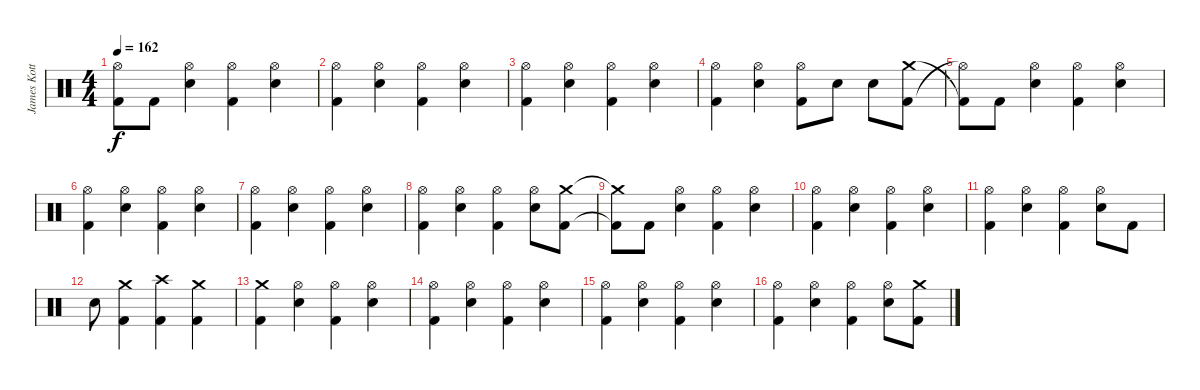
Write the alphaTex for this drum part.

\track ("James Kottak" "James Kott") {instrument percussion}
\staff {score}
\articulation defaults
\ts (4 4)
\tempo 162
\clef neutral
\ks c
("Hi-Hat (open)"{t} "Kick (hit) 2"{t}).8{dy f} "Kick (hit) 2".8 ("Hi-Hat (open)" "Snare (hit) 2").4 ("Hi-Hat (open)" "Kick (hit) 2").4 ("Hi-Hat (open)" "Snare (hit) 2").4 |
("Hi-Hat (open)" "Kick (hit) 2").4 ("Hi-Hat (open)" "Snare (hit) 2").4 ("Hi-Hat (open)" "Kick (hit) 2").4 ("Hi-Hat (open)" "Snare (hit) 2").4 |
("Hi-Hat (open)" "Kick (hit) 2").4 ("Hi-Hat (open)" "Snare (hit) 2").4 ("Hi-Hat (open)" "Kick (hit) 2").4 ("Hi-Hat (open)" "Snare (hit) 2").4 |
("Hi-Hat (open)" "Kick (hit) 2").4 ("Hi-Hat (open)" "Snare (hit) 2").4 ("Hi-Hat (open)" "Kick (hit) 2").8 "Snare (hit) 2".8 "Snare (hit) 2".8 ("Kick (hit) 2" "Crash medium (hit)").8 |
("Hi-Hat (open)"{t} "Kick (hit) 2"{t}).8 "Kick (hit) 2".8 ("Hi-Hat (open)" "Snare (hit) 2").4 ("Hi-Hat (open)" "Kick (hit) 2").4 ("Hi-Hat (open)" "Snare (hit) 2").4 |
("Hi-Hat (open)" "Kick (hit) 2").4 ("Hi-Hat (open)" "Snare (hit) 2").4 ("Hi-Hat (open)" "Kick (hit) 2").4 ("Hi-Hat (open)" "Snare (hit) 2").4 |
("Hi-Hat (open)" "Kick (hit) 2").4 ("Hi-Hat (open)" "Snare (hit) 2").4 ("Hi-Hat (open)" "Kick (hit) 2").4 ("Hi-Hat (open)" "Snare (hit) 2").4 |
("Hi-Hat (open)" "Kick (hit) 2").4 ("Hi-Hat (open)" "Snare (hit) 2").4 ("Hi-Hat (open)" "Kick (hit) 2").4 ("Hi-Hat (open)" "Snare (hit) 2").8 ("Crash medium (hit)" "Kick (hit) 2").8 |
("Crash medium (hit)"{t} "Kick (hit) 2"{t}).8 "Kick (hit) 2".8 ("Hi-Hat (open)" "Snare (hit) 2").4 ("Hi-Hat (open)" "Kick (hit) 2").4 ("Hi-Hat (open)" "Snare (hit) 2").4 |
("Hi-Hat (open)" "Kick (hit) 2").4 ("Hi-Hat (open)" "Snare (hit) 2").4 ("Hi-Hat (open)" "Kick (hit) 2").4 ("Hi-Hat (open)" "Snare (hit) 2").4 |
("Hi-Hat (open)" "Kick (hit) 2").4 ("Hi-Hat (open)" "Snare (hit) 2").4 ("Hi-Hat (open)" "Kick (hit) 2").4 ("Hi-Hat (open)" "Snare (hit) 2").8 "Kick (hit) 2".8 |
"Snare (hit) 2".8 ("Crash medium (hit)" "Kick (hit) 2").4 ("Crash high (hit)" "Kick (hit) 2").4 ("Crash medium (hit)" "Kick (hit) 2").4 |
("Crash medium (hit)" "Kick (hit) 2").4 ("Hi-Hat (open)" "Snare (hit) 2").4 ("Hi-Hat (open)" "Kick (hit) 2").4 ("Hi-Hat (open)" "Snare (hit) 2").4 |
("Hi-Hat (open)" "Kick (hit) 2").4 ("Hi-Hat (open)" "Snare (hit) 2").4 ("Hi-Hat (open)" "Kick (hit) 2").4 ("Hi-Hat (open)" "Snare (hit) 2").4 |
("Hi-Hat (open)" "Kick (hit) 2").4 ("Hi-Hat (open)" "Snare (hit) 2").4 ("Hi-Hat (open)" "Kick (hit) 2").4 ("Hi-Hat (open)" "Snare (hit) 2").4 |
("Hi-Hat (open)" "Kick (hit) 2").4 ("Hi-Hat (open)" "Snare (hit) 2").4 ("Hi-Hat (open)" "Kick (hit) 2").4 ("Hi-Hat (open)" "Snare (hit) 2").8 ("Crash medium (hit)" "Kick (hit) 2").8
